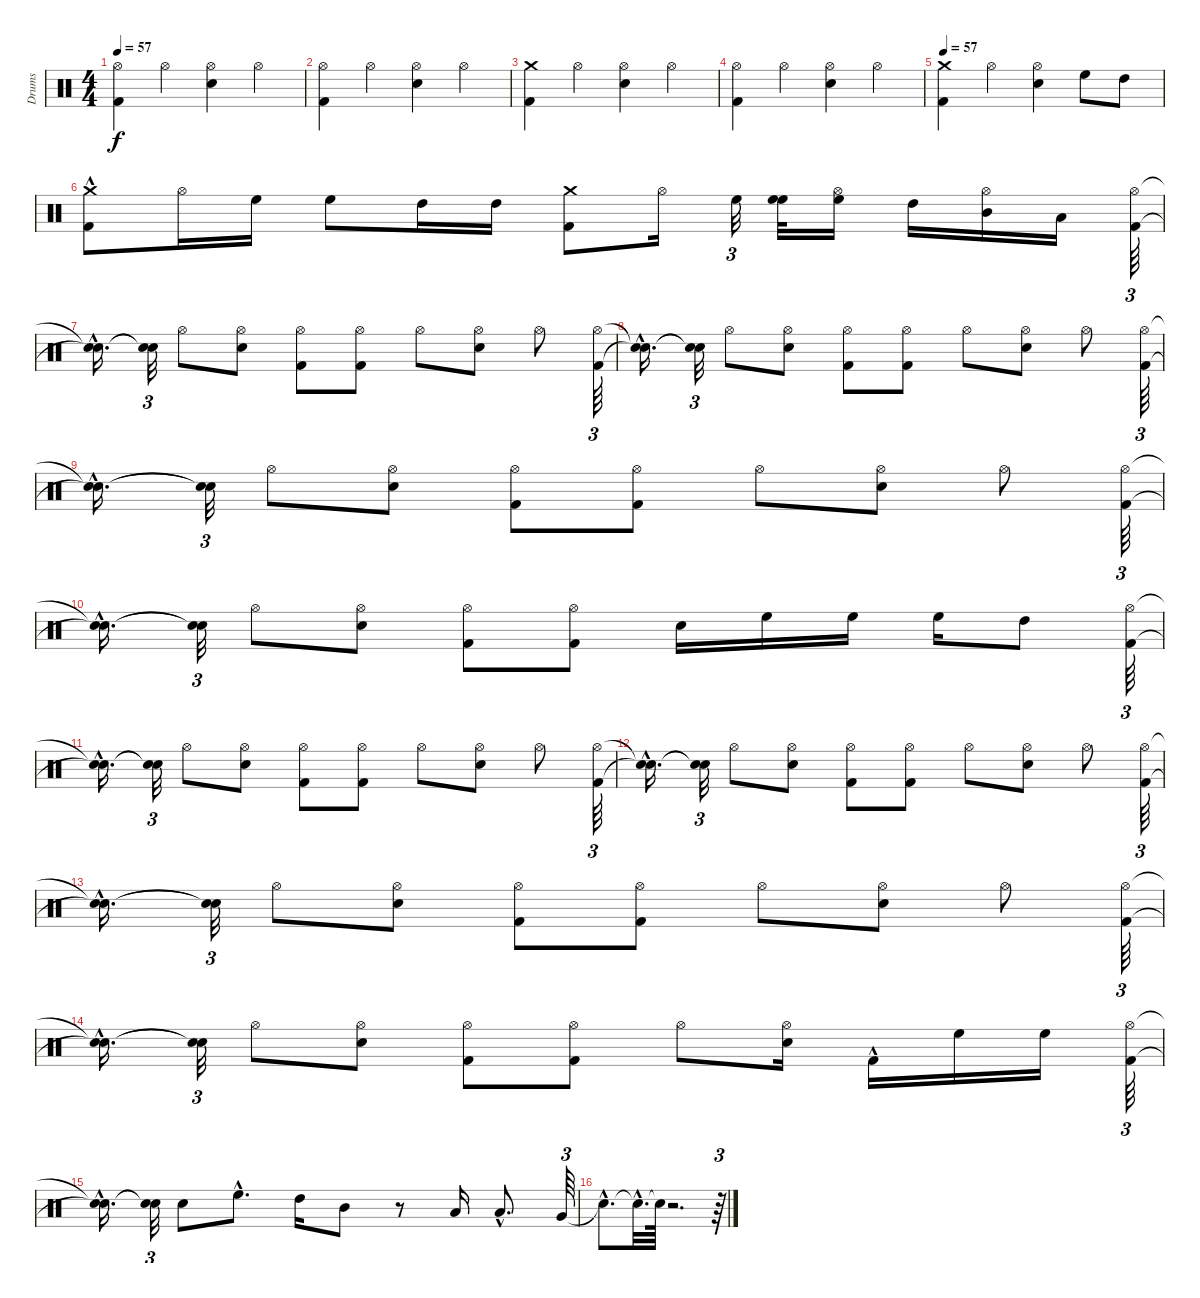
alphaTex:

\track ("Drums" "Drums") {instrument percussion}
\staff {score}
\articulation defaults
\ts (4 4)
\tempo 57
\clef neutral
\ks c
("Kick (hit) 2" "Hi-Hat (open)").4{dy f} "Hi-Hat (open)".4 ("Snare (hit) 2" "Hi-Hat (open)").4 "Hi-Hat (open)".4 |
("Kick (hit) 2" "Hi-Hat (open)").4 "Hi-Hat (open)".4 ("Snare (hit) 2" "Hi-Hat (open)").4 "Hi-Hat (open)".4 |
("Kick (hit) 2" "Crash medium (hit)").4 "Hi-Hat (open)".4 ("Snare (hit) 2" "Hi-Hat (open)").4 "Hi-Hat (open)".4 |
("Kick (hit) 2" "Hi-Hat (open)").4 "Hi-Hat (open)".4 ("Snare (hit) 2" "Hi-Hat (open)").4 "Hi-Hat (open)".4 |
\tempo 57
("Kick (hit) 2" "Crash medium (hit)").4 "Hi-Hat (open)".4 ("Snare (hit) 2" "Hi-Hat (open)").4 "High Floor Tom (hit)".8 "High Tom (hit)".8 |
("Kick (hit) 2" "Crash medium (hit)"{hac}).8 "Hi-Hat (open)".16 "High Floor Tom (hit)".16 "High Floor Tom (hit)".8 "High Tom (hit)".16 "High Tom (hit)".16 ("Kick (hit) 2" "Crash medium (hit)").8 "Hi-Hat (open)".16 "High Floor Tom (hit)".32{tu (3 2)} ("High Floor Tom (hit)" "High Floor Tom (hit)").32 ("Hi-Hat (open)" "High Floor Tom (hit)").16 "High Tom (hit)".16 ("Hi-Hat (open)" "Mid Tom (hit)").16 "Low Tom (hit)".16 ("Kick (hit) 2" "Hi-Hat (open)").64{tu (3 2)} |
("Snare (hit)"{hac t} "Snare (hit)"{hac t}).16{d} ("Snare (hit)"{t} "Snare (hit)"{t}).32{tu (3 2)} "Hi-Hat (open)".8 ("Snare (hit) 2" "Hi-Hat (open)").8 ("Kick (hit) 2" "Hi-Hat (open)").8 ("Kick (hit) 2" "Hi-Hat (open)").8 "Hi-Hat (open)".8 ("Snare (hit) 2" "Hi-Hat (open)").8 "Hi-Hat (open)".8 ("Kick (hit) 2" "Hi-Hat (open)").64{tu (3 2)} |
("Snare (hit)"{hac t} "Snare (hit)"{hac t}).16{d} ("Snare (hit)"{t} "Snare (hit)"{t}).32{tu (3 2)} "Hi-Hat (open)".8 ("Snare (hit) 2" "Hi-Hat (open)").8 ("Kick (hit) 2" "Hi-Hat (open)").8 ("Kick (hit) 2" "Hi-Hat (open)").8 "Hi-Hat (open)".8 ("Snare (hit) 2" "Hi-Hat (open)").8 "Hi-Hat (open)".8 ("Kick (hit) 2" "Hi-Hat (open)").64{tu (3 2)} |
("Snare (hit)"{hac t} "Snare (hit)"{hac t}).16{d} ("Snare (hit)"{t} "Snare (hit)"{t}).32{tu (3 2)} "Hi-Hat (open)".8 ("Snare (hit) 2" "Hi-Hat (open)").8 ("Kick (hit) 2" "Hi-Hat (open)").8 ("Kick (hit) 2" "Hi-Hat (open)").8 "Hi-Hat (open)".8 ("Snare (hit) 2" "Hi-Hat (open)").8 "Hi-Hat (open)".8 ("Kick (hit) 2" "Hi-Hat (open)").64{tu (3 2)} |
("Snare (hit)"{hac t} "Snare (hit)"{hac t}).16{d} ("Snare (hit)"{t} "Snare (hit)"{t}).32{tu (3 2)} "Hi-Hat (open)".8 ("Snare (hit) 2" "Hi-Hat (open)").8 ("Kick (hit) 2" "Hi-Hat (open)").8 ("Hi-Hat (open)" "Kick (hit) 2").8 "Snare (hit) 2".16 "High Floor Tom (hit)".16 "High Floor Tom (hit)".16 "High Floor Tom (hit)".16 "High Tom (hit)".8 ("Kick (hit) 2" "Hi-Hat (open)").64{tu (3 2)} |
("Snare (hit)"{hac t} "Snare (hit)"{hac t}).16{d} ("Snare (hit)"{t} "Snare (hit)"{t}).32{tu (3 2)} "Hi-Hat (open)".8 ("Snare (hit) 2" "Hi-Hat (open)").8 ("Kick (hit) 2" "Hi-Hat (open)").8 ("Kick (hit) 2" "Hi-Hat (open)").8 "Hi-Hat (open)".8 ("Snare (hit) 2" "Hi-Hat (open)").8 "Hi-Hat (open)".8 ("Kick (hit) 2" "Hi-Hat (open)").64{tu (3 2)} |
("Snare (hit)"{hac t} "Snare (hit)"{hac t}).16{d} ("Snare (hit)"{t} "Snare (hit)"{t}).32{tu (3 2)} "Hi-Hat (open)".8 ("Snare (hit) 2" "Hi-Hat (open)").8 ("Kick (hit) 2" "Hi-Hat (open)").8 ("Kick (hit) 2" "Hi-Hat (open)").8 "Hi-Hat (open)".8 ("Snare (hit) 2" "Hi-Hat (open)").8 "Hi-Hat (open)".8 ("Kick (hit) 2" "Hi-Hat (open)").64{tu (3 2)} |
("Snare (hit)"{hac t} "Snare (hit)"{hac t}).16{d} ("Snare (hit)"{t} "Snare (hit)"{t}).32{tu (3 2)} "Hi-Hat (open)".8 ("Snare (hit) 2" "Hi-Hat (open)").8 ("Kick (hit) 2" "Hi-Hat (open)").8 ("Kick (hit) 2" "Hi-Hat (open)").8 "Hi-Hat (open)".8 ("Snare (hit) 2" "Hi-Hat (open)").8 "Hi-Hat (open)".8 ("Kick (hit) 2" "Hi-Hat (open)").64{tu (3 2)} |
("Snare (hit)"{hac t} "Snare (hit)"{hac t}).16{d} ("Snare (hit)"{t} "Snare (hit)"{t}).32{tu (3 2)} "Hi-Hat (open)".8 ("Snare (hit) 2" "Hi-Hat (open)").8 ("Kick (hit) 2" "Hi-Hat (open)").8 ("Kick (hit) 2" "Hi-Hat (open)").8 "Hi-Hat (open)".8 ("Snare (hit) 2" "Hi-Hat (open)").16 "Kick (hit) 2"{hac}.16 "High Floor Tom (hit)".16 "High Floor Tom (hit)".16 ("Hi-Hat (open)" "Kick (hit) 2").64{tu (3 2)} |
("Snare (hit)"{hac t} "Snare (hit)"{hac t}).16{d} ("Snare (hit)"{t} "Snare (hit)"{t}).32{tu (3 2)} "Snare (hit) 2".8 "High Floor Tom (hit)"{hac}.8{d} "High Tom (hit)".16 "Mid Tom (hit)".8 r.8 "Low Tom (hit)".16 "Low Tom (hit)"{hac}.8{d} "Very Low Tom (hit)".64{tu (3 2)} |
"Snare (hit)"{hac t}.8{d} "Snare (hit)"{hac t}.32{d} "Snare (hit)"{t}.64 r.2{d} r.64{tu (3 2)}
